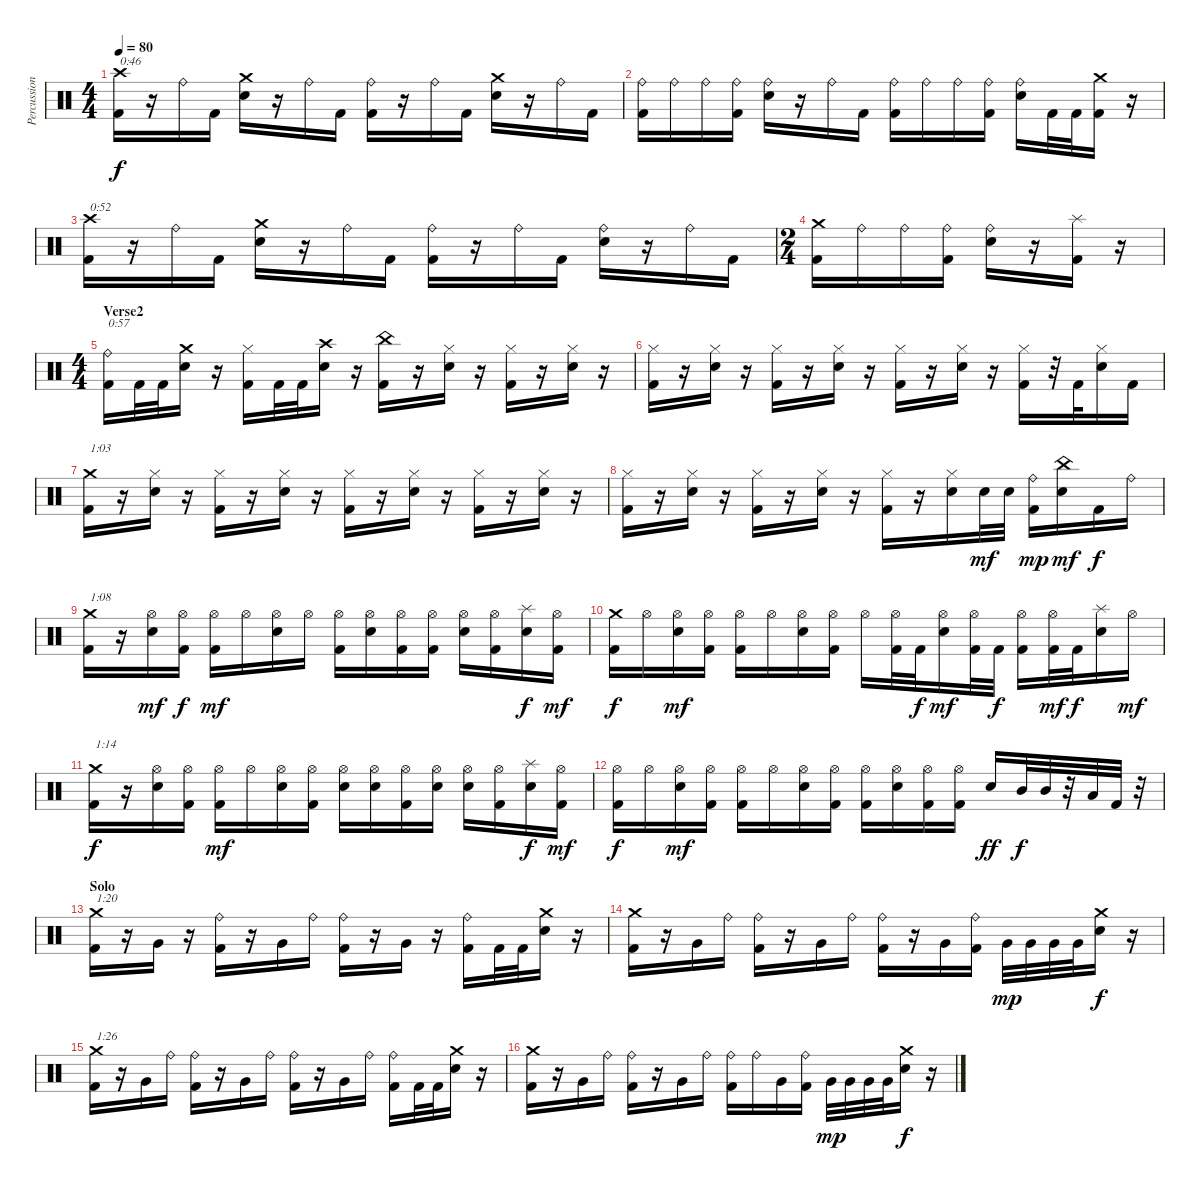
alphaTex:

\track ("Percussion" "Percussion") {instrument percussion}
\staff {score}
\articulation defaults
\ts (4 4)
\tempo 80
\clef neutral
\ks c
("Crash high (hit)" "Kick (hit) 2").16{txt "0:46" dy f} r.16 "Ride (bell)".16 "Kick (hit) 2".16 ("Crash medium (hit)" "Snare (hit) 2").16 r.16 "Ride (bell)".16 "Kick (hit) 2".16 ("Ride (bell)" "Kick (hit) 2").16 r.16 "Ride (bell)".16 "Kick (hit) 2".16 ("Crash medium (hit)" "Snare (hit) 2").16 r.16 "Ride (bell)".16 "Kick (hit) 2".16 |
("Ride (bell)" "Kick (hit) 2").16 "Ride (bell)".16 "Ride (bell)".16 ("Ride (bell)" "Kick (hit) 2").16 ("Ride (bell)" "Snare (hit) 2").16 r.16 "Ride (bell)".16 "Kick (hit) 2".16 ("Ride (bell)" "Kick (hit) 2").16 "Ride (bell)".16 "Ride (bell)".16 ("Ride (bell)" "Kick (hit) 2").16 ("Ride (bell)" "Snare (hit) 2").16 "Kick (hit) 2".32 "Kick (hit) 2".32 ("Crash medium (hit)" "Kick (hit) 2").16 r.16 |
("Crash high (hit)" "Kick (hit) 2").16{txt "0:52"} r.16 "Ride (bell)".16 "Kick (hit) 2".16 ("Crash medium (hit)" "Snare (hit) 2").16 r.16 "Ride (bell)".16 "Kick (hit) 2".16 ("Ride (bell)" "Kick (hit) 2").16 r.16 "Ride (bell)".16 "Kick (hit) 2".16 ("Ride (bell)" "Snare (hit) 2").16 r.16 "Ride (bell)".16 "Kick (hit) 2".16 |
\ts (2 4)
("Crash medium (hit)" "Kick (hit) 2").16 "Ride (bell)".16 "Ride (bell)".16 ("Ride (bell)" "Kick (hit) 2").16 ("Ride (bell)" "Snare (hit) 2").16 r.16 ("Splash (hit)" "Kick (hit) 2").16 r.16 |
\ts (4 4)
\section ("" "Verse2")
("Ride (bell)" "Kick (hit) 2").16{txt "0:57"} "Kick (hit) 2".32 "Kick (hit) 2".32 ("Crash medium (hit)" "Snare (hit) 2").16 r.16 ("Hi-Hat (closed)" "Kick (hit) 2").16 "Kick (hit) 2".32 "Kick (hit) 2".32 ("Crash high (hit)" "Snare (hit) 2").16 r.16 ("China (hit)" "Kick (hit) 2").16 r.16 ("Hi-Hat (closed)" "Snare (hit) 2").16 r.16 ("Hi-Hat (closed)" "Kick (hit) 2").16 r.16 ("Hi-Hat (closed)" "Snare (hit) 2").16 r.16 |
("Hi-Hat (closed)" "Kick (hit) 2").16 r.16 ("Hi-Hat (closed)" "Snare (hit) 2").16 r.16 ("Hi-Hat (closed)" "Kick (hit) 2").16 r.16 ("Hi-Hat (closed)" "Snare (hit) 2").16 r.16 ("Hi-Hat (closed)" "Kick (hit) 2").16 r.16 ("Hi-Hat (closed)" "Snare (hit) 2").16 r.16 ("Hi-Hat (closed)" "Kick (hit) 2").16 r.32 "Kick (hit) 2".32 ("Hi-Hat (closed)" "Snare (hit) 2").16 "Kick (hit) 2".16 |
("Crash medium (hit)" "Kick (hit) 2").16{txt "1:03"} r.16 ("Hi-Hat (closed)" "Snare (hit) 2").16 r.16 ("Hi-Hat (closed)" "Kick (hit) 2").16 r.16 ("Hi-Hat (closed)" "Snare (hit) 2").16 r.16 ("Hi-Hat (closed)" "Kick (hit) 2").16 r.16 ("Hi-Hat (closed)" "Snare (hit) 2").16 r.16 ("Hi-Hat (closed)" "Kick (hit) 2").16 r.16 ("Hi-Hat (closed)" "Snare (hit) 2").16 r.16 |
("Hi-Hat (closed)" "Kick (hit) 2").16 r.16 ("Hi-Hat (closed)" "Snare (hit) 2").16 r.16 ("Hi-Hat (closed)" "Kick (hit) 2").16 r.16 ("Hi-Hat (closed)" "Snare (hit) 2").16 r.16 ("Hi-Hat (closed)" "Kick (hit) 2").16 r.16 ("Hi-Hat (closed)" "Snare (hit) 2").16 "Snare (hit) 2".32{dy mf} "Snare (hit) 2".32 ("Ride (bell)" "Kick (hit) 2").16{dy mp} ("China (hit)" "Snare (hit) 2").16{dy mf} "Kick (hit) 2".16{dy f} "Ride (bell)".16 |
("Crash medium (hit)" "Kick (hit) 2").16{txt "1:08"} r.16 ("Hi-Hat (open)" "Snare (hit) 2").16{dy mf} ("Hi-Hat (open)" "Kick (hit) 2").16{dy f} ("Hi-Hat (open)" "Kick (hit) 2").16{dy mf} "Hi-Hat (open)".16 ("Hi-Hat (open)" "Snare (hit) 2").16 "Hi-Hat (open)".16 ("Hi-Hat (open)" "Kick (hit) 2").16 ("Hi-Hat (open)" "Snare (hit) 2").16 ("Hi-Hat (open)" "Kick (hit) 2").16 ("Hi-Hat (open)" "Kick (hit) 2").16 ("Hi-Hat (open)" "Snare (hit) 2").16 ("Hi-Hat (open)" "Kick (hit) 2").16 ("Splash (hit)" "Snare (hit) 2").16{dy f} ("Hi-Hat (open)" "Kick (hit) 2").16{dy mf} |
("Crash medium (hit)" "Kick (hit) 2").16{dy f} "Hi-Hat (open)".16 ("Hi-Hat (open)" "Snare (hit) 2").16{dy mf} ("Hi-Hat (open)" "Kick (hit) 2").16 ("Hi-Hat (open)" "Kick (hit) 2").16 "Hi-Hat (open)".16 ("Hi-Hat (open)" "Snare (hit) 2").16 ("Hi-Hat (open)" "Kick (hit) 2").16 "Hi-Hat (open)".16 ("Hi-Hat (open)" "Kick (hit) 2").32 "Kick (hit) 2".32{dy f} ("Hi-Hat (open)" "Snare (hit) 2").16{dy mf} ("Hi-Hat (open)" "Kick (hit) 2").32 "Kick (hit) 2".32{dy f} ("Hi-Hat (open)" "Kick (hit) 2").16 ("Hi-Hat (open)" "Kick (hit) 2").32{dy mf} "Kick (hit) 2".32{dy f} ("Splash (hit)" "Snare (hit) 2").16 "Hi-Hat (open)".16{dy mf} |
("Crash medium (hit)" "Kick (hit) 2").16{txt "1:14" dy f} r.16 ("Hi-Hat (open)" "Snare (hit) 2").16 ("Hi-Hat (open)" "Kick (hit) 2").16 ("Hi-Hat (open)" "Kick (hit) 2").16{dy mf} "Hi-Hat (open)".16 ("Hi-Hat (open)" "Snare (hit) 2").16 ("Hi-Hat (open)" "Kick (hit) 2").16 ("Hi-Hat (open)" "Snare (hit) 2").16 ("Hi-Hat (open)" "Snare (hit) 2").16 ("Hi-Hat (open)" "Kick (hit) 2").16 ("Hi-Hat (open)" "Snare (hit) 2").16 ("Hi-Hat (open)" "Snare (hit) 2").16 ("Hi-Hat (open)" "Kick (hit) 2").16 ("Splash (hit)" "Snare (hit) 2").16{dy f} ("Hi-Hat (open)" "Kick (hit) 2").16{dy mf} |
("Hi-Hat (open)" "Kick (hit) 2").16{dy f} "Hi-Hat (open)".16 ("Hi-Hat (open)" "Snare (hit) 2").16{dy mf} ("Hi-Hat (open)" "Kick (hit) 2").16 ("Hi-Hat (open)" "Kick (hit) 2").16 "Hi-Hat (open)".16 ("Hi-Hat (open)" "Snare (hit) 2").16 ("Hi-Hat (open)" "Kick (hit) 2").16 ("Hi-Hat (open)" "Kick (hit) 2").16 ("Hi-Hat (open)" "Snare (hit) 2").16 ("Hi-Hat (open)" "Kick (hit) 2").16 ("Hi-Hat (open)" "Kick (hit) 2").16 "Snare (hit) 2".16{dy ff} "Mid Tom (hit)".32{dy f} "Mid Tom (hit)".32 r.32 "Low Tom (hit)".32 "Kick (hit) 2".32 r.32 |
\section ("" "Solo")
("Crash medium (hit)" "Kick (hit) 2").16{txt "1:20"} r.16 "Very Low Tom (hit)".16 r.16 ("Ride (bell)" "Kick (hit) 2").16 r.16 "Very Low Tom (hit)".16 "Ride (bell)".16 ("Ride (bell)" "Kick (hit) 2").16 r.16 "Very Low Tom (hit)".16 r.16 ("Ride (bell)" "Kick (hit) 2").16 "Kick (hit) 2".32 "Kick (hit) 2".32 ("Crash medium (hit)" "Snare (hit) 2").16 r.16 |
("Crash medium (hit)" "Kick (hit) 2").16 r.16 "Very Low Tom (hit)".16 "Ride (bell)".16 ("Ride (bell)" "Kick (hit) 2").16 r.16 "Very Low Tom (hit)".16 "Ride (bell)".16 ("Ride (bell)" "Kick (hit) 2").16 r.16 "Very Low Tom (hit)".16 ("Ride (bell)" "Kick (hit) 2").16 "Very Low Tom (hit)".32{dy mp} "Very Low Tom (hit)".32 "Very Low Tom (hit)".32 "Very Low Tom (hit)".32 ("Crash medium (hit)" "Snare (hit) 2").16{dy f} r.16 |
("Crash medium (hit)" "Kick (hit) 2").16{txt "1:26"} r.16 "Very Low Tom (hit)".16 "Ride (bell)".16 ("Ride (bell)" "Kick (hit) 2").16 r.16 "Very Low Tom (hit)".16 "Ride (bell)".16 ("Ride (bell)" "Kick (hit) 2").16 r.16 "Very Low Tom (hit)".16 "Ride (bell)".16 ("Ride (bell)" "Kick (hit) 2").16 "Kick (hit) 2".32 "Kick (hit) 2".32 ("Crash medium (hit)" "Snare (hit) 2").16 r.16 |
("Crash medium (hit)" "Kick (hit) 2").16 r.16 "Very Low Tom (hit)".16 "Ride (bell)".16 ("Ride (bell)" "Kick (hit) 2").16 r.16 "Very Low Tom (hit)".16 "Ride (bell)".16 ("Ride (bell)" "Kick (hit) 2").16 "Ride (bell)".16 "Very Low Tom (hit)".16 ("Ride (bell)" "Kick (hit) 2").16 "Very Low Tom (hit)".32{dy mp} "Very Low Tom (hit)".32 "Very Low Tom (hit)".32 "Very Low Tom (hit)".32 ("Crash medium (hit)" "Snare (hit) 2").16{dy f} r.16
